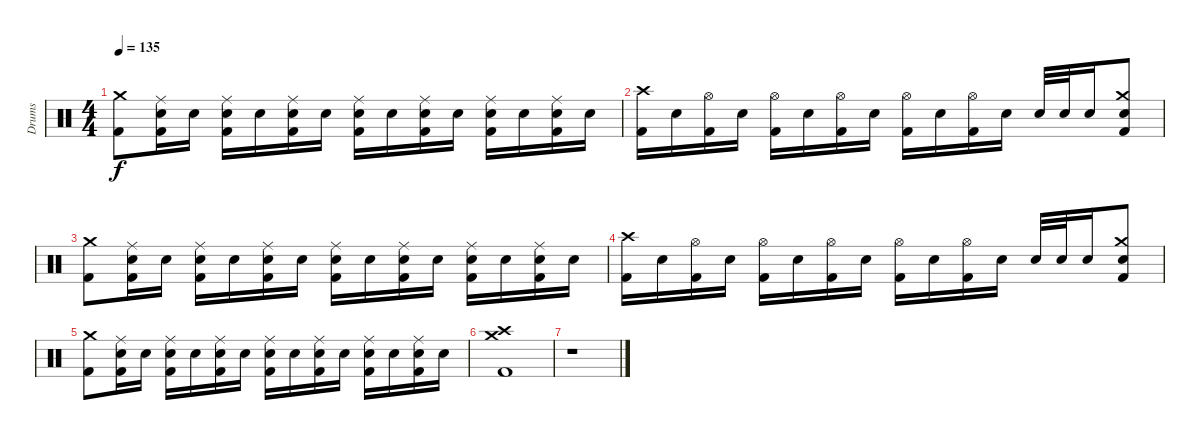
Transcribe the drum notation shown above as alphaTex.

\track ("Drums" "Drums") {instrument percussion}
\staff {score}
\articulation defaults
\ts (4 4)
\tempo 135
\clef neutral
\ks c
("Kick (hit) 2" "Crash medium (hit)").8{dy f} ("Kick (hit) 2" "Electric Snare (hit)" "Ride (middle)").16 "Electric Snare (hit)".16 ("Kick (hit) 2" "Electric Snare (hit)" "Ride (middle)").16 "Electric Snare (hit)".16 ("Kick (hit) 2" "Electric Snare (hit)" "Ride (middle)").16 "Electric Snare (hit)".16 ("Kick (hit) 2" "Electric Snare (hit)" "Ride (middle)").16 "Electric Snare (hit)".16 ("Kick (hit) 2" "Electric Snare (hit)" "Ride (middle)").16 "Electric Snare (hit)".16 ("Kick (hit) 2" "Electric Snare (hit)" "Ride (middle)").16 "Electric Snare (hit)".16 ("Kick (hit) 2" "Electric Snare (hit)" "Ride (middle)").16 "Electric Snare (hit)".16 |
("Kick (hit) 2" "Crash high (hit)").16 "Electric Snare (hit)".16 ("Kick (hit) 2" "Hi-Hat (open)").16 "Electric Snare (hit)".16 ("Kick (hit) 2" "Hi-Hat (open)").16 "Electric Snare (hit)".16 ("Kick (hit) 2" "Hi-Hat (open)").16 "Electric Snare (hit)".16 ("Kick (hit) 2" "Hi-Hat (open)").16 "Electric Snare (hit)".16 ("Kick (hit) 2" "Hi-Hat (open)").16 "Electric Snare (hit)".16 "Electric Snare (hit)".32 "Electric Snare (hit)".32 "Electric Snare (hit)".16 ("Kick (hit) 2" "Electric Snare (hit)" "Crash medium (hit)").8 |
("Kick (hit) 2" "Crash medium (hit)").8 ("Kick (hit) 2" "Electric Snare (hit)" "Ride (middle)").16 "Electric Snare (hit)".16 ("Kick (hit) 2" "Electric Snare (hit)" "Ride (middle)").16 "Electric Snare (hit)".16 ("Kick (hit) 2" "Electric Snare (hit)" "Ride (middle)").16 "Electric Snare (hit)".16 ("Kick (hit) 2" "Electric Snare (hit)" "Ride (middle)").16 "Electric Snare (hit)".16 ("Kick (hit) 2" "Electric Snare (hit)" "Ride (middle)").16 "Electric Snare (hit)".16 ("Kick (hit) 2" "Electric Snare (hit)" "Ride (middle)").16 "Electric Snare (hit)".16 ("Kick (hit) 2" "Electric Snare (hit)" "Ride (middle)").16 "Electric Snare (hit)".16 |
("Kick (hit) 2" "Crash high (hit)").16 "Electric Snare (hit)".16 ("Kick (hit) 2" "Hi-Hat (open)").16 "Electric Snare (hit)".16 ("Kick (hit) 2" "Hi-Hat (open)").16 "Electric Snare (hit)".16 ("Kick (hit) 2" "Hi-Hat (open)").16 "Electric Snare (hit)".16 ("Kick (hit) 2" "Hi-Hat (open)").16 "Electric Snare (hit)".16 ("Kick (hit) 2" "Hi-Hat (open)").16 "Electric Snare (hit)".16 "Electric Snare (hit)".32 "Electric Snare (hit)".32 "Electric Snare (hit)".16 ("Kick (hit) 2" "Electric Snare (hit)" "Crash medium (hit)").8 |
("Kick (hit) 2" "Crash medium (hit)").8 ("Kick (hit) 2" "Electric Snare (hit)" "Ride (middle)").16 "Electric Snare (hit)".16 ("Kick (hit) 2" "Electric Snare (hit)" "Ride (middle)").16 "Electric Snare (hit)".16 ("Kick (hit) 2" "Electric Snare (hit)" "Ride (middle)").16 "Electric Snare (hit)".16 ("Kick (hit) 2" "Electric Snare (hit)" "Ride (middle)").16 "Electric Snare (hit)".16 ("Kick (hit) 2" "Electric Snare (hit)" "Ride (middle)").16 "Electric Snare (hit)".16 ("Kick (hit) 2" "Electric Snare (hit)" "Ride (middle)").16 "Electric Snare (hit)".16 ("Kick (hit) 2" "Electric Snare (hit)" "Ride (middle)").16 "Electric Snare (hit)".16 |
("Kick (hit) 2" "Crash high (hit)" "Crash medium (hit)").1 |
r.1
